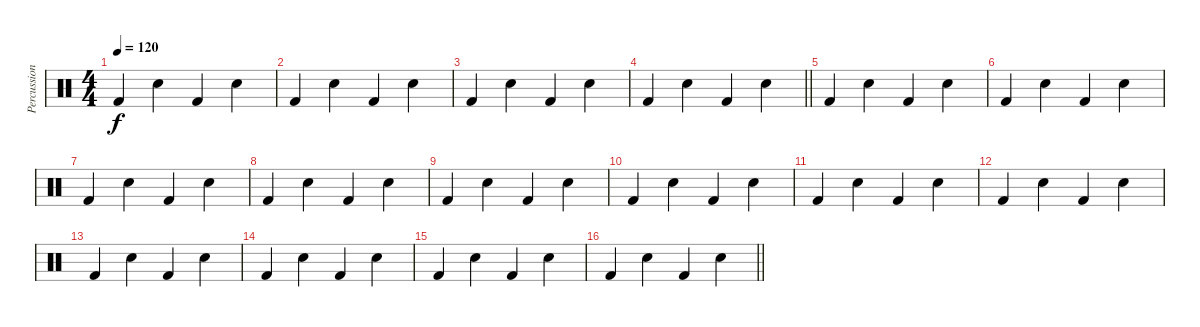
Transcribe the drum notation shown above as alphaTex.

\track ("Percussion" "Percussion") {instrument percussion}
\staff {score}
\articulation defaults
\ts (4 4)
\tempo 120
\clef neutral
\ks c "Kick (hit) 2".4{dy f} "Snare (hit) 2".4 "Kick (hit) 2".4 "Snare (hit) 2".4
|
"Kick (hit) 2".4 "Snare (hit) 2".4 "Kick (hit) 2".4 "Snare (hit) 2".4 |
"Kick (hit) 2".4 "Snare (hit) 2".4 "Kick (hit) 2".4 "Snare (hit) 2".4 |
\barLineRight lightlight "Kick (hit) 2".4 "Snare (hit) 2".4 "Kick (hit) 2".4 "Snare (hit) 2".4
|
"Kick (hit) 2".4 "Snare (hit) 2".4 "Kick (hit) 2".4 "Snare (hit) 2".4 |
"Kick (hit) 2".4 "Snare (hit) 2".4 "Kick (hit) 2".4 "Snare (hit) 2".4 |
"Kick (hit) 2".4 "Snare (hit) 2".4 "Kick (hit) 2".4 "Snare (hit) 2".4 |
"Kick (hit) 2".4 "Snare (hit) 2".4 "Kick (hit) 2".4 "Snare (hit) 2".4 |
"Kick (hit) 2".4 "Snare (hit) 2".4 "Kick (hit) 2".4 "Snare (hit) 2".4 |
"Kick (hit) 2".4 "Snare (hit) 2".4 "Kick (hit) 2".4 "Snare (hit) 2".4 |
"Kick (hit) 2".4 "Snare (hit) 2".4 "Kick (hit) 2".4 "Snare (hit) 2".4 |
"Kick (hit) 2".4 "Snare (hit) 2".4 "Kick (hit) 2".4 "Snare (hit) 2".4 |
"Kick (hit) 2".4 "Snare (hit) 2".4 "Kick (hit) 2".4 "Snare (hit) 2".4 |
"Kick (hit) 2".4 "Snare (hit) 2".4 "Kick (hit) 2".4 "Snare (hit) 2".4 |
"Kick (hit) 2".4 "Snare (hit) 2".4 "Kick (hit) 2".4 "Snare (hit) 2".4 |
\barLineRight lightlight "Kick (hit) 2".4 "Snare (hit) 2".4 "Kick (hit) 2".4 "Snare (hit) 2".4
